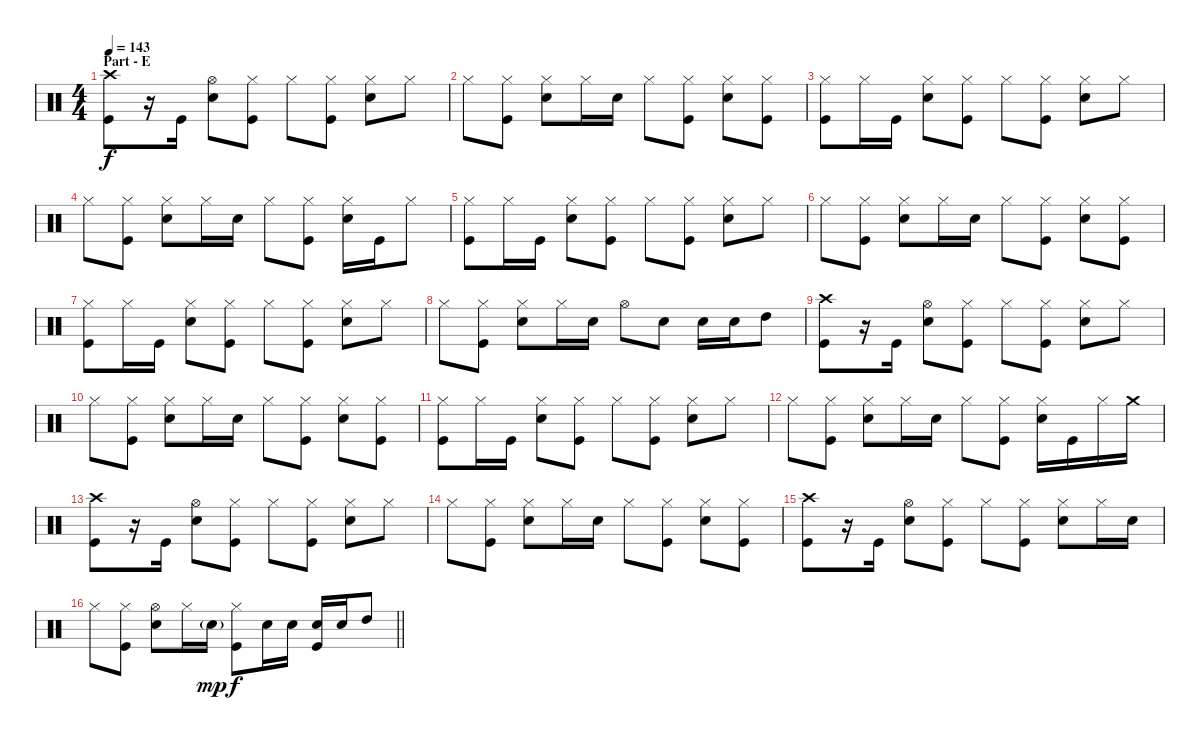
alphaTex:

\track "" {instrument percussion}
\staff {score}
\articulation defaults
\ts (4 4)
\section ("" "Part - E")
\tempo 143
\clef neutral
\ks c
("Crash high (hit)" "Kick (hit)").8{dy f} r.16 "Kick (hit)".16 ("Hi-Hat (open)" "Snare (hit) 2").8 ("Hi-Hat (closed)" "Kick (hit)").8 "Hi-Hat (closed)".8 ("Hi-Hat (closed)" "Kick (hit)").8 ("Hi-Hat (closed)" "Snare (hit) 2").8 "Hi-Hat (closed)".8 |
"Hi-Hat (closed)".8 ("Hi-Hat (closed)" "Kick (hit)").8 ("Hi-Hat (closed)" "Snare (hit) 2").8 "Hi-Hat (closed)".16 "Snare (hit) 2".16 "Hi-Hat (closed)".8 ("Hi-Hat (closed)" "Kick (hit)").8 ("Hi-Hat (closed)" "Snare (hit) 2").8 ("Hi-Hat (closed)" "Kick (hit)").8 |
("Hi-Hat (closed)" "Kick (hit)").8 "Hi-Hat (closed)".16 "Kick (hit)".16 ("Hi-Hat (closed)" "Snare (hit) 2").8 ("Hi-Hat (closed)" "Kick (hit)").8 "Hi-Hat (closed)".8 ("Hi-Hat (closed)" "Kick (hit)").8 ("Hi-Hat (closed)" "Snare (hit) 2").8 "Hi-Hat (closed)".8 |
"Hi-Hat (closed)".8 ("Hi-Hat (closed)" "Kick (hit)").8 ("Hi-Hat (closed)" "Snare (hit) 2").8 "Hi-Hat (closed)".16 "Snare (hit) 2".16 "Hi-Hat (closed)".8 ("Hi-Hat (closed)" "Kick (hit)").8 ("Hi-Hat (closed)" "Snare (hit) 2").16 "Kick (hit)".16 "Hi-Hat (closed)".8 |
("Hi-Hat (closed)" "Kick (hit)").8 "Hi-Hat (closed)".16 "Kick (hit)".16 ("Hi-Hat (closed)" "Snare (hit) 2").8 ("Hi-Hat (closed)" "Kick (hit)").8 "Hi-Hat (closed)".8 ("Hi-Hat (closed)" "Kick (hit)").8 ("Hi-Hat (closed)" "Snare (hit) 2").8 "Hi-Hat (closed)".8 |
"Hi-Hat (closed)".8 ("Hi-Hat (closed)" "Kick (hit)").8 ("Hi-Hat (closed)" "Snare (hit) 2").8 "Hi-Hat (closed)".16 "Snare (hit) 2".16 "Hi-Hat (closed)".8 ("Hi-Hat (closed)" "Kick (hit)").8 ("Hi-Hat (closed)" "Snare (hit) 2").8 ("Hi-Hat (closed)" "Kick (hit)").8 |
("Hi-Hat (closed)" "Kick (hit)").8 "Hi-Hat (closed)".16 "Kick (hit)".16 ("Hi-Hat (closed)" "Snare (hit) 2").8 ("Hi-Hat (closed)" "Kick (hit)").8 "Hi-Hat (closed)".8 ("Hi-Hat (closed)" "Kick (hit)").8 ("Hi-Hat (closed)" "Snare (hit) 2").8 "Hi-Hat (closed)".8 |
"Hi-Hat (closed)".8 ("Hi-Hat (closed)" "Kick (hit)").8 ("Hi-Hat (closed)" "Snare (hit) 2").8 "Hi-Hat (closed)".16 "Snare (hit) 2".16 "Hi-Hat (open)".8 "Snare (hit) 2".8 "Snare (hit) 2".16 "Snare (hit) 2".16 "High Tom (hit)".8 |
("Crash high (hit)" "Kick (hit)").8 r.16 "Kick (hit)".16 ("Hi-Hat (open)" "Snare (hit) 2").8 ("Hi-Hat (closed)" "Kick (hit)").8 "Hi-Hat (closed)".8 ("Hi-Hat (closed)" "Kick (hit)").8 ("Hi-Hat (closed)" "Snare (hit) 2").8 "Hi-Hat (closed)".8 |
"Hi-Hat (closed)".8 ("Hi-Hat (closed)" "Kick (hit)").8 ("Hi-Hat (closed)" "Snare (hit) 2").8 "Hi-Hat (closed)".16 "Snare (hit) 2".16 "Hi-Hat (closed)".8 ("Hi-Hat (closed)" "Kick (hit)").8 ("Hi-Hat (closed)" "Snare (hit) 2").8 ("Hi-Hat (closed)" "Kick (hit)").8 |
("Hi-Hat (closed)" "Kick (hit)").8 "Hi-Hat (closed)".16 "Kick (hit)".16 ("Hi-Hat (closed)" "Snare (hit) 2").8 ("Hi-Hat (closed)" "Kick (hit)").8 "Hi-Hat (closed)".8 ("Hi-Hat (closed)" "Kick (hit)").8 ("Hi-Hat (closed)" "Snare (hit) 2").8 "Hi-Hat (closed)".8 |
"Hi-Hat (closed)".8 ("Hi-Hat (closed)" "Kick (hit)").8 ("Hi-Hat (closed)" "Snare (hit) 2").8 "Hi-Hat (closed)".16 "Snare (hit) 2".16 "Hi-Hat (closed)".8 ("Hi-Hat (closed)" "Kick (hit)").8 ("Hi-Hat (closed)" "Snare (hit) 2").16 "Kick (hit)".16 "Hi-Hat (closed)".16 "Crash medium (hit)".16 |
("Crash high (hit)" "Kick (hit)").8 r.16 "Kick (hit)".16 ("Hi-Hat (open)" "Snare (hit) 2").8 ("Hi-Hat (closed)" "Kick (hit)").8 "Hi-Hat (closed)".8 ("Hi-Hat (closed)" "Kick (hit)").8 ("Hi-Hat (closed)" "Snare (hit) 2").8 "Hi-Hat (closed)".8 |
"Hi-Hat (closed)".8 ("Hi-Hat (closed)" "Kick (hit)").8 ("Hi-Hat (closed)" "Snare (hit) 2").8 "Hi-Hat (closed)".16 "Snare (hit) 2".16 "Hi-Hat (closed)".8 ("Hi-Hat (closed)" "Kick (hit)").8 ("Hi-Hat (closed)" "Snare (hit) 2").8 ("Hi-Hat (closed)" "Kick (hit)").8 |
("Crash high (hit)" "Kick (hit)").8 r.16 "Kick (hit)".16 ("Hi-Hat (open)" "Snare (hit) 2").8 ("Hi-Hat (closed)" "Kick (hit)").8 "Hi-Hat (closed)".8 ("Hi-Hat (closed)" "Kick (hit)").8 ("Hi-Hat (closed)" "Snare (hit) 2").8 "Hi-Hat (closed)".16 "Snare (hit) 2".16 |
\barLineRight lightlight "Hi-Hat (closed)".8
("Hi-Hat (closed)" "Kick (hit)").8 ("Hi-Hat (open)" "Snare (hit) 2").8 "Hi-Hat (closed)".16 "Snare (hit) 2"{g}.16{dy mp} ("Hi-Hat (closed)" "Kick (hit)").8{dy f} "Snare (hit) 2".16 "Snare (hit) 2".16 ("Snare (hit) 2" "Kick (hit)").16 "Snare (hit) 2".16 "High Tom (hit)".8
